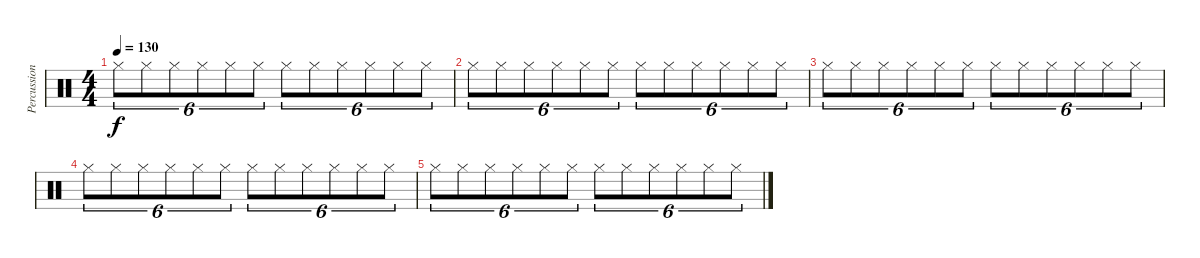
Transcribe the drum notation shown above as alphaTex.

\track ("Percussion" "Percussion") {instrument percussion bank 177}
\staff {score}
\articulation defaults
\ts (4 4)
\tempo 130
\clef neutral
\ks c "Hi-Hat (closed)".8{tu (6 4) dy f} "Hi-Hat (closed)".8{tu (6 4)} "Hi-Hat (closed)".8{tu (6 4)} "Hi-Hat (closed)".8{tu (6 4)} "Hi-Hat (closed)".8{tu (6 4)} "Hi-Hat (closed)".8{tu (6 4)} "Hi-Hat (closed)".8{tu (6 4)} "Hi-Hat (closed)".8{tu (6 4)} "Hi-Hat (closed)".8{tu (6 4)} "Hi-Hat (closed)".8{tu (6 4)} "Hi-Hat (closed)".8{tu (6 4)} "Hi-Hat (closed)".8{tu (6 4)}
|
"Hi-Hat (closed)".8{tu (6 4)} "Hi-Hat (closed)".8{tu (6 4)} "Hi-Hat (closed)".8{tu (6 4)} "Hi-Hat (closed)".8{tu (6 4)} "Hi-Hat (closed)".8{tu (6 4)} "Hi-Hat (closed)".8{tu (6 4)} "Hi-Hat (closed)".8{tu (6 4)} "Hi-Hat (closed)".8{tu (6 4)} "Hi-Hat (closed)".8{tu (6 4)} "Hi-Hat (closed)".8{tu (6 4)} "Hi-Hat (closed)".8{tu (6 4)} "Hi-Hat (closed)".8{tu (6 4)} |
"Hi-Hat (closed)".8{tu (6 4)} "Hi-Hat (closed)".8{tu (6 4)} "Hi-Hat (closed)".8{tu (6 4)} "Hi-Hat (closed)".8{tu (6 4)} "Hi-Hat (closed)".8{tu (6 4)} "Hi-Hat (closed)".8{tu (6 4)} "Hi-Hat (closed)".8{tu (6 4)} "Hi-Hat (closed)".8{tu (6 4)} "Hi-Hat (closed)".8{tu (6 4)} "Hi-Hat (closed)".8{tu (6 4)} "Hi-Hat (closed)".8{tu (6 4)} "Hi-Hat (closed)".8{tu (6 4)} |
"Hi-Hat (closed)".8{tu (6 4)} "Hi-Hat (closed)".8{tu (6 4)} "Hi-Hat (closed)".8{tu (6 4)} "Hi-Hat (closed)".8{tu (6 4)} "Hi-Hat (closed)".8{tu (6 4)} "Hi-Hat (closed)".8{tu (6 4)} "Hi-Hat (closed)".8{tu (6 4)} "Hi-Hat (closed)".8{tu (6 4)} "Hi-Hat (closed)".8{tu (6 4)} "Hi-Hat (closed)".8{tu (6 4)} "Hi-Hat (closed)".8{tu (6 4)} "Hi-Hat (closed)".8{tu (6 4)} |
"Hi-Hat (closed)".8{tu (6 4)} "Hi-Hat (closed)".8{tu (6 4)} "Hi-Hat (closed)".8{tu (6 4)} "Hi-Hat (closed)".8{tu (6 4)} "Hi-Hat (closed)".8{tu (6 4)} "Hi-Hat (closed)".8{tu (6 4)} "Hi-Hat (closed)".8{tu (6 4)} "Hi-Hat (closed)".8{tu (6 4)} "Hi-Hat (closed)".8{tu (6 4)} "Hi-Hat (closed)".8{tu (6 4)} "Hi-Hat (closed)".8{tu (6 4)} "Hi-Hat (closed)".8{tu (6 4)}
